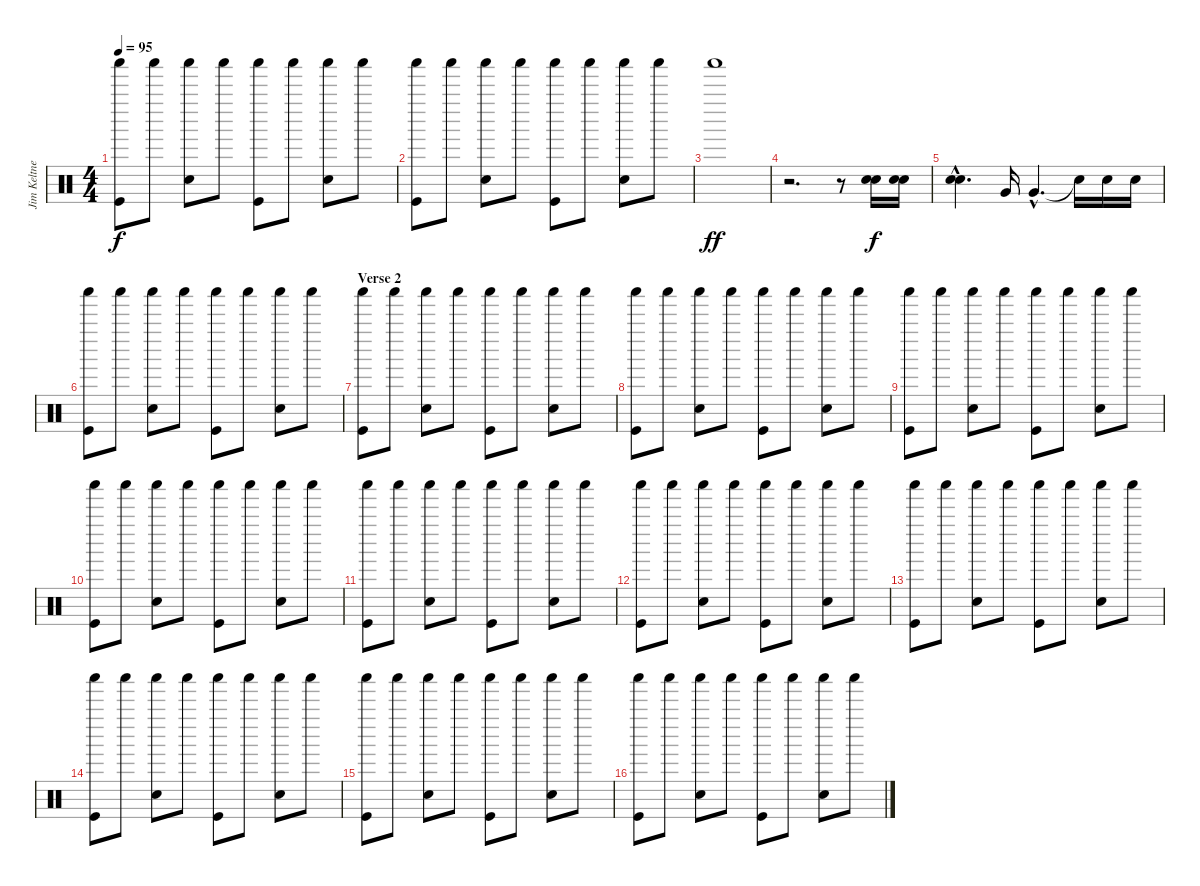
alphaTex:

\track ("Jim Keltner" "Jim Keltne") {instrument percussion}
\staff {score}
\articulation defaults
\ts (4 4)
\tempo 95
\clef neutral
\ks c
("Shaker (hit)" "Kick (hit)").8{dy f} "Shaker (hit)".8 ("Shaker (hit)" "Snare (hit) 2").8 "Shaker (hit)".8 ("Shaker (hit)" "Kick (hit)").8 "Shaker (hit)".8 ("Shaker (hit)" "Snare (hit) 2").8 "Shaker (hit)".8 |
("Shaker (hit)" "Kick (hit)").8 "Shaker (hit)".8 ("Shaker (hit)" "Snare (hit) 2").8 "Shaker (hit)".8 ("Shaker (hit)" "Kick (hit)").8 "Shaker (hit)".8 ("Shaker (hit)" "Snare (hit) 2").8 "Shaker (hit)".8 |
"Shaker (hit)".1{dy ff} |
r.2{d} r.8 ("Snare (hit) 2" "Snare (hit) 2").16{dy f} ("Snare (hit) 2" "Snare (hit) 2").16 |
("Snare (hit) 2"{hac} "Snare (hit) 2"{hac}).4{d} "Very Low Tom (hit)".16 "Very Low Tom (hit)"{hac}.4{d} "Snare (hit)"{t}.16 "Snare (hit) 2".16 "Snare (hit) 2".16 |
("Shaker (hit)" "Kick (hit)").8 "Shaker (hit)".8 ("Shaker (hit)" "Snare (hit) 2").8 "Shaker (hit)".8 ("Shaker (hit)" "Kick (hit)").8 "Shaker (hit)".8 ("Shaker (hit)" "Snare (hit) 2").8 "Shaker (hit)".8 |
\section ("" "Verse 2")
("Shaker (hit)" "Kick (hit)").8 "Shaker (hit)".8 ("Shaker (hit)" "Snare (hit) 2").8 "Shaker (hit)".8 ("Shaker (hit)" "Kick (hit)").8 "Shaker (hit)".8 ("Shaker (hit)" "Snare (hit) 2").8 "Shaker (hit)".8 |
("Shaker (hit)" "Kick (hit)").8 "Shaker (hit)".8 ("Shaker (hit)" "Snare (hit) 2").8 "Shaker (hit)".8 ("Shaker (hit)" "Kick (hit)").8 "Shaker (hit)".8 ("Shaker (hit)" "Snare (hit) 2").8 "Shaker (hit)".8 |
("Shaker (hit)" "Kick (hit)").8 "Shaker (hit)".8 ("Shaker (hit)" "Snare (hit) 2").8 "Shaker (hit)".8 ("Shaker (hit)" "Kick (hit)").8 "Shaker (hit)".8 ("Shaker (hit)" "Snare (hit) 2").8 "Shaker (hit)".8 |
("Shaker (hit)" "Kick (hit)").8 "Shaker (hit)".8 ("Shaker (hit)" "Snare (hit) 2").8 "Shaker (hit)".8 ("Shaker (hit)" "Kick (hit)").8 "Shaker (hit)".8 ("Shaker (hit)" "Snare (hit) 2").8 "Shaker (hit)".8 |
("Shaker (hit)" "Kick (hit)").8 "Shaker (hit)".8 ("Shaker (hit)" "Snare (hit) 2").8 "Shaker (hit)".8 ("Shaker (hit)" "Kick (hit)").8 "Shaker (hit)".8 ("Shaker (hit)" "Snare (hit) 2").8 "Shaker (hit)".8 |
("Shaker (hit)" "Kick (hit)").8 "Shaker (hit)".8 ("Shaker (hit)" "Snare (hit) 2").8 "Shaker (hit)".8 ("Shaker (hit)" "Kick (hit)").8 "Shaker (hit)".8 ("Shaker (hit)" "Snare (hit) 2").8 "Shaker (hit)".8 |
("Shaker (hit)" "Kick (hit)").8 "Shaker (hit)".8 ("Shaker (hit)" "Snare (hit) 2").8 "Shaker (hit)".8 ("Shaker (hit)" "Kick (hit)").8 "Shaker (hit)".8 ("Shaker (hit)" "Snare (hit) 2").8 "Shaker (hit)".8 |
("Shaker (hit)" "Kick (hit)").8 "Shaker (hit)".8 ("Shaker (hit)" "Snare (hit) 2").8 "Shaker (hit)".8 ("Shaker (hit)" "Kick (hit)").8 "Shaker (hit)".8 ("Shaker (hit)" "Snare (hit) 2").8 "Shaker (hit)".8 |
("Shaker (hit)" "Kick (hit)").8 "Shaker (hit)".8 ("Shaker (hit)" "Snare (hit) 2").8 "Shaker (hit)".8 ("Shaker (hit)" "Kick (hit)").8 "Shaker (hit)".8 ("Shaker (hit)" "Snare (hit) 2").8 "Shaker (hit)".8 |
("Shaker (hit)" "Kick (hit)").8 "Shaker (hit)".8 ("Shaker (hit)" "Snare (hit) 2").8 "Shaker (hit)".8 ("Shaker (hit)" "Kick (hit)").8 "Shaker (hit)".8 ("Shaker (hit)" "Snare (hit) 2").8 "Shaker (hit)".8
